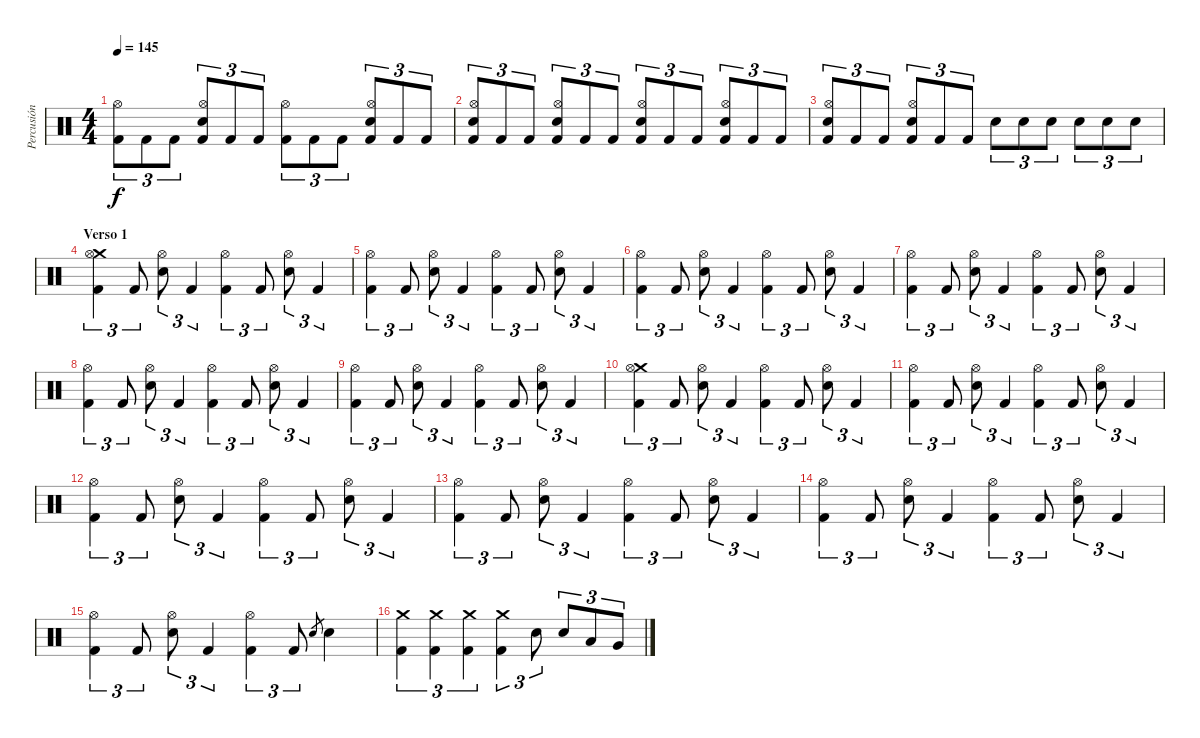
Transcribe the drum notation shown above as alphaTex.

\track ("Percusión" "Percusión") {instrument percussion}
\staff {score}
\articulation defaults
\ts (4 4)
\tempo 145
\clef neutral
\ks c
("Kick (hit) 2" "Hi-Hat (open)").8{tu (3 2) dy f} "Kick (hit) 2".8{tu (3 2)} "Kick (hit) 2".8{tu (3 2)} ("Hi-Hat (open)" "Kick (hit) 2" "Snare (hit) 2").8{tu (3 2)} "Kick (hit) 2".8{tu (3 2)} "Kick (hit) 2".8{tu (3 2)} ("Kick (hit) 2" "Hi-Hat (open)").8{tu (3 2)} "Kick (hit) 2".8{tu (3 2)} "Kick (hit) 2".8{tu (3 2)} ("Hi-Hat (open)" "Kick (hit) 2" "Snare (hit) 2").8{tu (3 2)} "Kick (hit) 2".8{tu (3 2)} "Kick (hit) 2".8{tu (3 2)} |
("Snare (hit) 2" "Kick (hit) 2" "Hi-Hat (open)").8{tu (3 2)} "Kick (hit) 2".8{tu (3 2)} "Kick (hit) 2".8{tu (3 2)} ("Hi-Hat (open)" "Kick (hit) 2" "Snare (hit) 2").8{tu (3 2)} "Kick (hit) 2".8{tu (3 2)} "Kick (hit) 2".8{tu (3 2)} ("Snare (hit) 2" "Kick (hit) 2" "Hi-Hat (open)").8{tu (3 2)} "Kick (hit) 2".8{tu (3 2)} "Kick (hit) 2".8{tu (3 2)} ("Hi-Hat (open)" "Kick (hit) 2" "Snare (hit) 2").8{tu (3 2)} "Kick (hit) 2".8{tu (3 2)} "Kick (hit) 2".8{tu (3 2)} |
("Snare (hit) 2" "Kick (hit) 2" "Hi-Hat (open)").8{tu (3 2)} "Kick (hit) 2".8{tu (3 2)} "Kick (hit) 2".8{tu (3 2)} ("Hi-Hat (open)" "Kick (hit) 2" "Snare (hit) 2").8{tu (3 2)} "Kick (hit) 2".8{tu (3 2)} "Kick (hit) 2".8{tu (3 2)} "Snare (hit) 2".8{tu (3 2)} "Snare (hit) 2".8{tu (3 2)} "Snare (hit) 2".8{tu (3 2)} "Snare (hit) 2".8{tu (3 2)} "Snare (hit) 2".8{tu (3 2)} "Snare (hit) 2".8{tu (3 2)} |
\section ("" "Verso 1")
("Kick (hit) 2" "Crash medium (hit)" "Hi-Hat (open)").4{tu (3 2)} "Kick (hit) 2".8{tu (3 2)} ("Snare (hit) 2" "Hi-Hat (open)").8{tu (3 2)} "Kick (hit) 2".4{tu (3 2)} ("Kick (hit) 2" "Hi-Hat (open)").4{tu (3 2)} "Kick (hit) 2".8{tu (3 2)} ("Snare (hit) 2" "Hi-Hat (open)").8{tu (3 2)} "Kick (hit) 2".4{tu (3 2)} |
("Kick (hit) 2" "Hi-Hat (open)").4{tu (3 2)} "Kick (hit) 2".8{tu (3 2)} ("Snare (hit) 2" "Hi-Hat (open)").8{tu (3 2)} "Kick (hit) 2".4{tu (3 2)} ("Kick (hit) 2" "Hi-Hat (open)").4{tu (3 2)} "Kick (hit) 2".8{tu (3 2)} ("Snare (hit) 2" "Hi-Hat (open)").8{tu (3 2)} "Kick (hit) 2".4{tu (3 2)} |
("Kick (hit) 2" "Hi-Hat (open)").4{tu (3 2)} "Kick (hit) 2".8{tu (3 2)} ("Snare (hit) 2" "Hi-Hat (open)").8{tu (3 2)} "Kick (hit) 2".4{tu (3 2)} ("Kick (hit) 2" "Hi-Hat (open)").4{tu (3 2)} "Kick (hit) 2".8{tu (3 2)} ("Snare (hit) 2" "Hi-Hat (open)").8{tu (3 2)} "Kick (hit) 2".4{tu (3 2)} |
("Kick (hit) 2" "Hi-Hat (open)").4{tu (3 2)} "Kick (hit) 2".8{tu (3 2)} ("Snare (hit) 2" "Hi-Hat (open)").8{tu (3 2)} "Kick (hit) 2".4{tu (3 2)} ("Kick (hit) 2" "Hi-Hat (open)").4{tu (3 2)} "Kick (hit) 2".8{tu (3 2)} ("Snare (hit) 2" "Hi-Hat (open)").8{tu (3 2)} "Kick (hit) 2".4{tu (3 2)} |
("Kick (hit) 2" "Hi-Hat (open)").4{tu (3 2)} "Kick (hit) 2".8{tu (3 2)} ("Snare (hit) 2" "Hi-Hat (open)").8{tu (3 2)} "Kick (hit) 2".4{tu (3 2)} ("Kick (hit) 2" "Hi-Hat (open)").4{tu (3 2)} "Kick (hit) 2".8{tu (3 2)} ("Snare (hit) 2" "Hi-Hat (open)").8{tu (3 2)} "Kick (hit) 2".4{tu (3 2)} |
("Kick (hit) 2" "Hi-Hat (open)").4{tu (3 2)} "Kick (hit) 2".8{tu (3 2)} ("Snare (hit) 2" "Hi-Hat (open)").8{tu (3 2)} "Kick (hit) 2".4{tu (3 2)} ("Kick (hit) 2" "Hi-Hat (open)").4{tu (3 2)} "Kick (hit) 2".8{tu (3 2)} ("Snare (hit) 2" "Hi-Hat (open)").8{tu (3 2)} "Kick (hit) 2".4{tu (3 2)} |
("Kick (hit) 2" "Crash medium (hit)" "Hi-Hat (open)").4{tu (3 2)} "Kick (hit) 2".8{tu (3 2)} ("Snare (hit) 2" "Hi-Hat (open)").8{tu (3 2)} "Kick (hit) 2".4{tu (3 2)} ("Kick (hit) 2" "Hi-Hat (open)").4{tu (3 2)} "Kick (hit) 2".8{tu (3 2)} ("Snare (hit) 2" "Hi-Hat (open)").8{tu (3 2)} "Kick (hit) 2".4{tu (3 2)} |
("Kick (hit) 2" "Hi-Hat (open)").4{tu (3 2)} "Kick (hit) 2".8{tu (3 2)} ("Snare (hit) 2" "Hi-Hat (open)").8{tu (3 2)} "Kick (hit) 2".4{tu (3 2)} ("Kick (hit) 2" "Hi-Hat (open)").4{tu (3 2)} "Kick (hit) 2".8{tu (3 2)} ("Snare (hit) 2" "Hi-Hat (open)").8{tu (3 2)} "Kick (hit) 2".4{tu (3 2)} |
("Kick (hit) 2" "Hi-Hat (open)").4{tu (3 2)} "Kick (hit) 2".8{tu (3 2)} ("Snare (hit) 2" "Hi-Hat (open)").8{tu (3 2)} "Kick (hit) 2".4{tu (3 2)} ("Kick (hit) 2" "Hi-Hat (open)").4{tu (3 2)} "Kick (hit) 2".8{tu (3 2)} ("Snare (hit) 2" "Hi-Hat (open)").8{tu (3 2)} "Kick (hit) 2".4{tu (3 2)} |
("Kick (hit) 2" "Hi-Hat (open)").4{tu (3 2)} "Kick (hit) 2".8{tu (3 2)} ("Snare (hit) 2" "Hi-Hat (open)").8{tu (3 2)} "Kick (hit) 2".4{tu (3 2)} ("Kick (hit) 2" "Hi-Hat (open)").4{tu (3 2)} "Kick (hit) 2".8{tu (3 2)} ("Snare (hit) 2" "Hi-Hat (open)").8{tu (3 2)} "Kick (hit) 2".4{tu (3 2)} |
("Kick (hit) 2" "Hi-Hat (open)").4{tu (3 2)} "Kick (hit) 2".8{tu (3 2)} ("Snare (hit) 2" "Hi-Hat (open)").8{tu (3 2)} "Kick (hit) 2".4{tu (3 2)} ("Kick (hit) 2" "Hi-Hat (open)").4{tu (3 2)} "Kick (hit) 2".8{tu (3 2)} ("Snare (hit) 2" "Hi-Hat (open)").8{tu (3 2)} "Kick (hit) 2".4{tu (3 2)} |
("Kick (hit) 2" "Hi-Hat (open)").4{tu (3 2)} "Kick (hit) 2".8{tu (3 2)} ("Snare (hit) 2" "Hi-Hat (open)").8{tu (3 2)} "Kick (hit) 2".4{tu (3 2)} ("Kick (hit) 2" "Hi-Hat (open)").4{tu (3 2)} "Kick (hit) 2".8{tu (3 2)} "Snare (hit) 2".8{gr} "Snare (hit) 2".4 |
("Crash medium (hit)" "Kick (hit) 2").4{tu (3 2)} ("Crash medium (hit)" "Kick (hit) 2").4{tu (3 2)} ("Crash medium (hit)" "Kick (hit) 2").4{tu (3 2)} ("Crash medium (hit)" "Kick (hit) 2").4{tu (3 2)} "Snare (hit) 2".8{tu (3 2)} "Snare (hit) 2".8{tu (3 2)} "Low Tom (hit)".8{tu (3 2)} "Very Low Tom (hit)".8{tu (3 2)}
